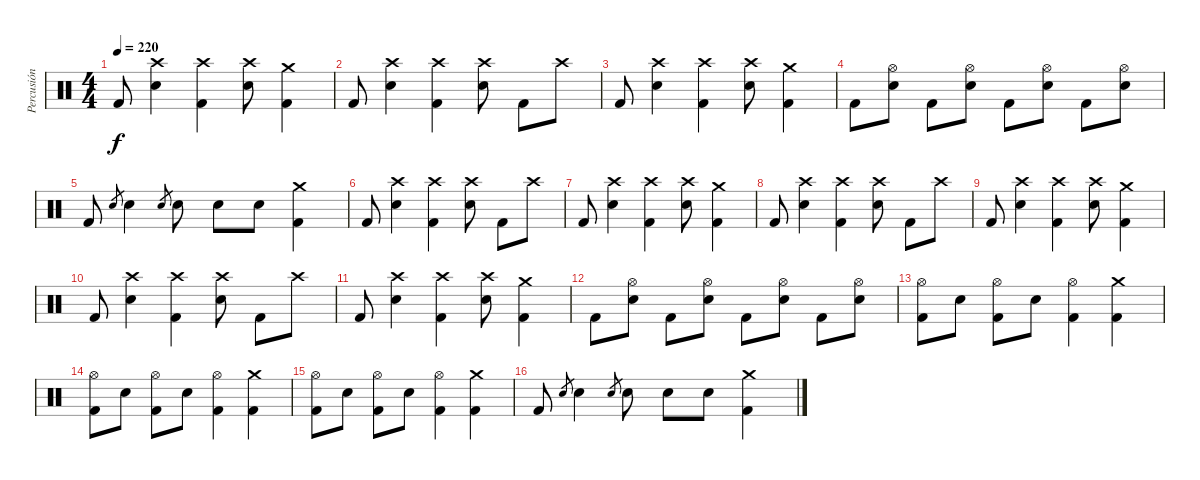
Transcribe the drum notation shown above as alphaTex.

\track ("Percusión" "Percusión") {instrument percussion}
\staff {score}
\articulation defaults
\ts (4 4)
\tempo 220
\clef neutral
\ks c "Kick (hit) 2".8{dy f}
("Crash high (hit)" "Snare (hit) 2").4 ("Crash high (hit)" "Kick (hit) 2").4 ("Crash high (hit)" "Snare (hit) 2").8 ("Crash medium (hit)" "Kick (hit) 2").4 |
"Kick (hit) 2".8 ("Crash high (hit)" "Snare (hit) 2").4 ("Crash high (hit)" "Kick (hit) 2").4 ("Crash high (hit)" "Snare (hit) 2").8 "Kick (hit) 2".8 "Crash high (hit)".8 |
"Kick (hit) 2".8 ("Crash high (hit)" "Snare (hit) 2").4 ("Crash high (hit)" "Kick (hit) 2").4 ("Crash high (hit)" "Snare (hit) 2").8 ("Crash medium (hit)" "Kick (hit) 2").4 |
"Kick (hit) 2".8 ("Hi-Hat (open)" "Snare (hit) 2").8 "Kick (hit) 2".8 ("Hi-Hat (open)" "Snare (hit) 2").8 "Kick (hit) 2".8 ("Hi-Hat (open)" "Snare (hit) 2").8 "Kick (hit) 2".8 ("Hi-Hat (open)" "Snare (hit) 2").8 |
"Kick (hit) 2".8 "Snare (hit) 2".8{gr} "Snare (hit) 2".4 "Snare (hit) 2".8{gr} "Snare (hit) 2".8 "Snare (hit) 2".8 "Snare (hit) 2".8 ("Crash medium (hit)" "Kick (hit) 2").4 |
"Kick (hit) 2".8 ("Crash high (hit)" "Snare (hit) 2").4 ("Crash high (hit)" "Kick (hit) 2").4 ("Crash high (hit)" "Snare (hit) 2").8 "Kick (hit) 2".8 "Crash high (hit)".8 |
"Kick (hit) 2".8 ("Crash high (hit)" "Snare (hit) 2").4 ("Crash high (hit)" "Kick (hit) 2").4 ("Crash high (hit)" "Snare (hit) 2").8 ("Crash medium (hit)" "Kick (hit) 2").4 |
"Kick (hit) 2".8 ("Crash high (hit)" "Snare (hit) 2").4 ("Crash high (hit)" "Kick (hit) 2").4 ("Crash high (hit)" "Snare (hit) 2").8 "Kick (hit) 2".8 "Crash high (hit)".8 |
"Kick (hit) 2".8 ("Crash high (hit)" "Snare (hit) 2").4 ("Crash high (hit)" "Kick (hit) 2").4 ("Crash high (hit)" "Snare (hit) 2").8 ("Crash medium (hit)" "Kick (hit) 2").4 |
"Kick (hit) 2".8 ("Crash high (hit)" "Snare (hit) 2").4 ("Crash high (hit)" "Kick (hit) 2").4 ("Crash high (hit)" "Snare (hit) 2").8 "Kick (hit) 2".8 "Crash high (hit)".8 |
"Kick (hit) 2".8 ("Crash high (hit)" "Snare (hit) 2").4 ("Crash high (hit)" "Kick (hit) 2").4 ("Crash high (hit)" "Snare (hit) 2").8 ("Crash medium (hit)" "Kick (hit) 2").4 |
"Kick (hit) 2".8 ("Hi-Hat (open)" "Snare (hit) 2").8 "Kick (hit) 2".8 ("Hi-Hat (open)" "Snare (hit) 2").8 "Kick (hit) 2".8 ("Hi-Hat (open)" "Snare (hit) 2").8 "Kick (hit) 2".8 ("Hi-Hat (open)" "Snare (hit) 2").8 |
("Hi-Hat (open)" "Kick (hit) 2").8 "Snare (hit) 2".8 ("Hi-Hat (open)" "Kick (hit) 2").8 "Snare (hit) 2".8 ("Hi-Hat (open)" "Kick (hit) 2").4 ("Crash medium (hit)" "Kick (hit) 2").4 |
("Hi-Hat (open)" "Kick (hit) 2").8 "Snare (hit) 2".8 ("Hi-Hat (open)" "Kick (hit) 2").8 "Snare (hit) 2".8 ("Hi-Hat (open)" "Kick (hit) 2").4 ("Crash medium (hit)" "Kick (hit) 2").4 |
("Hi-Hat (open)" "Kick (hit) 2").8 "Snare (hit) 2".8 ("Hi-Hat (open)" "Kick (hit) 2").8 "Snare (hit) 2".8 ("Hi-Hat (open)" "Kick (hit) 2").4 ("Crash medium (hit)" "Kick (hit) 2").4 |
"Kick (hit) 2".8 "Snare (hit) 2".8{gr} "Snare (hit) 2".4 "Snare (hit) 2".8{gr} "Snare (hit) 2".8 "Snare (hit) 2".8 "Snare (hit) 2".8 ("Crash medium (hit)" "Kick (hit) 2").4
